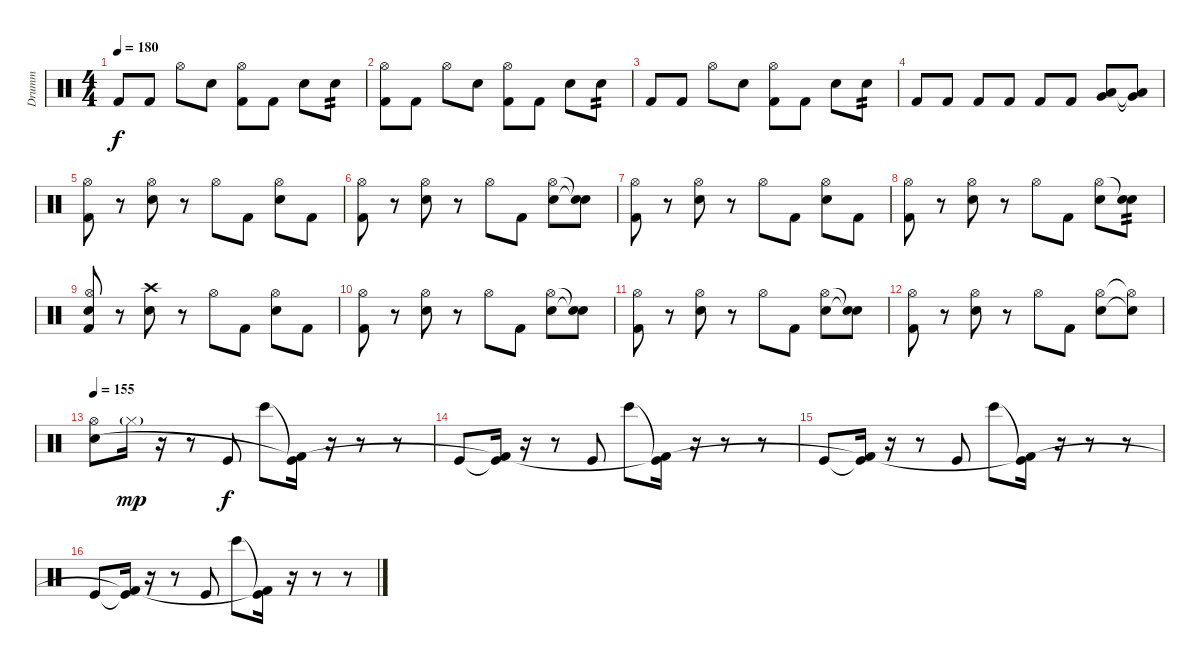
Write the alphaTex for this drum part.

\track ("Drumm" "Drumm") {instrument percussion}
\staff {score}
\articulation defaults
\ts (4 4)
\tempo 180
\clef neutral
\ks c "Kick (hit) 2".8{dy f} "Kick (hit) 2".8 "Hi-Hat (open)".8 "Snare (hit) 2".8
("Hi-Hat (open)" "Kick (hit) 2").8 "Kick (hit) 2".8 "Snare (hit) 2".8 "Snare (hit) 2".8{tp 2} |
("Hi-Hat (open)" "Kick (hit) 2").8 "Kick (hit) 2".8 "Hi-Hat (open)".8 "Snare (hit) 2".8 ("Hi-Hat (open)" "Kick (hit) 2").8 "Kick (hit) 2".8 "Snare (hit) 2".8 "Snare (hit) 2".8{tp 2} |
"Kick (hit) 2".8 "Kick (hit) 2".8 "Hi-Hat (open)".8 "Snare (hit) 2".8 ("Hi-Hat (open)" "Kick (hit) 2").8 "Kick (hit) 2".8 "Snare (hit) 2".8 "Snare (hit) 2".8{tp 2} |
"Kick (hit) 2".8 "Kick (hit) 2".8 "Kick (hit) 2".8 "Kick (hit) 2".8 "Kick (hit) 2".8 "Kick (hit) 2".8 ("Very Low Tom (hit)" "Low Tom (hit)").8 ("Very Low Tom (hit)"{t} "Low Tom (hit)"{t}).8 |
("Hi-Hat (open)" "Kick (hit) 2").8 r.8 ("Hi-Hat (open)" "Snare (hit) 2").8 r.8 "Hi-Hat (open)".8 "Kick (hit) 2".8 ("Hi-Hat (open)" "Snare (hit) 2").8 "Kick (hit) 2".8 |
("Hi-Hat (open)" "Kick (hit) 2").8 r.8 ("Hi-Hat (open)" "Snare (hit) 2").8 r.8 "Hi-Hat (open)".8 "Kick (hit) 2".8 ("Hi-Hat (open)" "Snare (hit) 2").8 ("Snare (hit)"{t} "Snare (hit)"{t}).8 |
("Hi-Hat (open)" "Kick (hit) 2").8 r.8 ("Hi-Hat (open)" "Snare (hit) 2").8 r.8 "Hi-Hat (open)".8 "Kick (hit) 2".8 ("Hi-Hat (open)" "Snare (hit) 2").8 "Kick (hit) 2".8 |
("Hi-Hat (open)" "Kick (hit) 2").8 r.8 ("Hi-Hat (open)" "Snare (hit) 2").8 r.8 "Hi-Hat (open)".8 "Kick (hit) 2".8 ("Hi-Hat (open)" "Snare (hit) 2").8 ("Snare (hit)"{t} "Snare (hit) 2").8{tp 2} |
("Hi-Hat (open)" "Snare (hit) 2" "Kick (hit) 2").8 r.8 ("Crash high (hit)" "Snare (hit) 2").8 r.8 "Hi-Hat (open)".8 "Kick (hit) 2".8 ("Hi-Hat (open)" "Snare (hit) 2").8 "Kick (hit) 2".8 |
("Hi-Hat (open)" "Kick (hit) 2").8 r.8 ("Hi-Hat (open)" "Snare (hit) 2").8 r.8 "Hi-Hat (open)".8 "Kick (hit) 2".8 ("Hi-Hat (open)" "Snare (hit) 2").8 ("Snare (hit)"{t} "Snare (hit)"{t}).8 |
("Hi-Hat (open)" "Kick (hit) 2").8 r.8 ("Hi-Hat (open)" "Snare (hit) 2").8 r.8 "Hi-Hat (open)".8 "Kick (hit) 2".8 ("Hi-Hat (open)" "Snare (hit) 2").8 ("Snare (hit)"{t} "Snare (hit)"{t}).8 |
("Hi-Hat (open)" "Kick (hit) 2").8 r.8 ("Hi-Hat (open)" "Snare (hit) 2").8 r.8 "Hi-Hat (open)".8 "Kick (hit) 2".8 ("Hi-Hat (open)" "Snare (hit) 2").8 ("Hi-Hat (open)"{t} "Snare (hit) 2"{t}).8 |
\tempo 155
("Hi-Hat (open)" "Snare (hit) 2").8 "Hi-Hat (closed)"{g}.16{dy mp} r.16 r.8 "Kick (hit)".8{dy f} "Bongo High (hit)".8 ("Kick (hit)"{t} "Kick (hit) 2"{t}).16 r.16 r.8 r.8 |
"Kick (hit)".8 ("Kick (hit)"{t} "Kick (hit) 2"{t}).16 r.16 r.8 "Kick (hit)".8 "Bongo High (hit)".8 ("Kick (hit)"{t} "Kick (hit) 2"{t}).16 r.16 r.8 r.8 |
"Kick (hit)".8 ("Kick (hit)"{t} "Kick (hit) 2"{t}).16 r.16 r.8 "Kick (hit)".8 "Bongo High (hit)".8 ("Kick (hit)"{t} "Kick (hit) 2"{t}).16 r.16 r.8 r.8 |
"Kick (hit)".8 ("Kick (hit)"{t} "Kick (hit) 2"{t}).16 r.16 r.8 "Kick (hit)".8 "Bongo High (hit)".8 ("Kick (hit)"{t} "Kick (hit) 2"{t}).16 r.16 r.8 r.8
